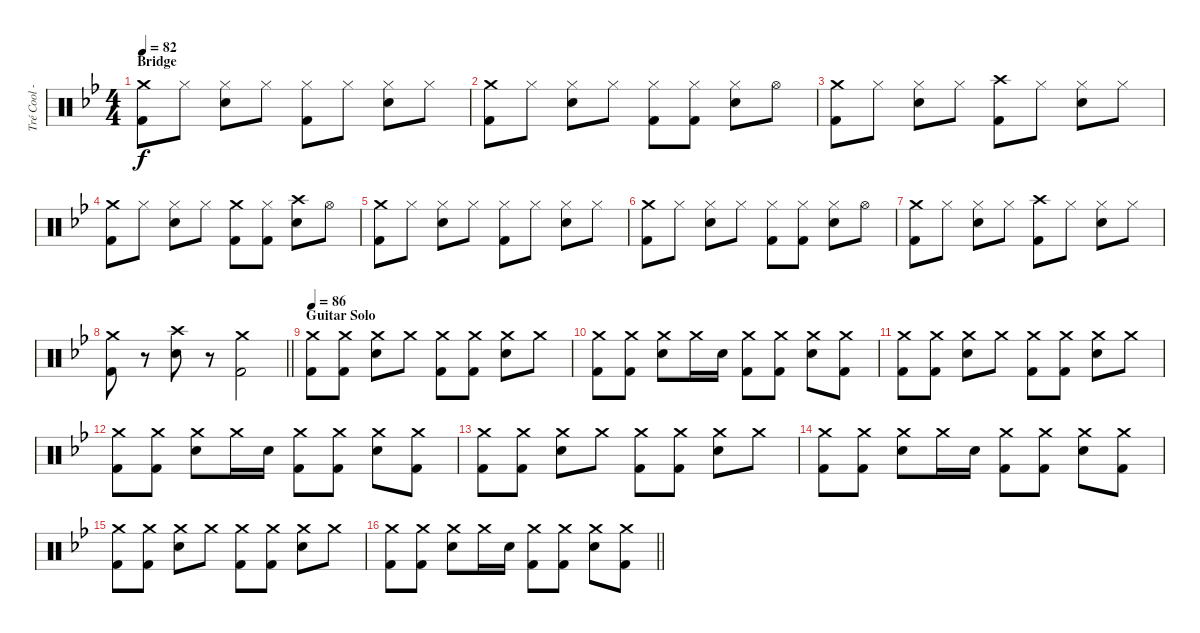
\track ("Tré Cool - Drums" "Tré Cool -") {instrument percussion}
\staff {score}
\articulation defaults
\ts (4 4)
\section ("" "Bridge")
\tempo 82
\clef neutral
\ks gminor
("Crash medium (hit)" "Kick (hit) 2").8{dy f} "Hi-Hat (closed)".8 ("Hi-Hat (closed)" "Electric Snare (hit)").8 "Hi-Hat (closed)".8 ("Hi-Hat (closed)" "Kick (hit) 2").8 "Hi-Hat (closed)".8 ("Hi-Hat (closed)" "Electric Snare (hit)").8 "Hi-Hat (closed)".8 |
("Crash medium (hit)" "Kick (hit) 2").8 "Hi-Hat (closed)".8 ("Hi-Hat (closed)" "Electric Snare (hit)").8 "Hi-Hat (closed)".8 ("Hi-Hat (closed)" "Kick (hit) 2").8 ("Hi-Hat (closed)" "Kick (hit) 2").8 ("Hi-Hat (closed)" "Electric Snare (hit)").8 "Hi-Hat (open)".8 |
("Crash medium (hit)" "Kick (hit) 2").8 "Hi-Hat (closed)".8 ("Hi-Hat (closed)" "Electric Snare (hit)").8 "Hi-Hat (closed)".8 ("Crash high (hit)" "Kick (hit) 2").8 "Hi-Hat (closed)".8 ("Hi-Hat (closed)" "Electric Snare (hit)").8 "Hi-Hat (closed)".8 |
("Crash medium (hit)" "Kick (hit) 2").8 "Hi-Hat (closed)".8 ("Hi-Hat (closed)" "Electric Snare (hit)").8 "Hi-Hat (closed)".8 ("Crash medium (hit)" "Kick (hit) 2").8 ("Hi-Hat (closed)" "Kick (hit) 2").8 ("Crash high (hit)" "Electric Snare (hit)").8 "Hi-Hat (open)".8 |
("Crash medium (hit)" "Kick (hit) 2").8 "Hi-Hat (closed)".8 ("Hi-Hat (closed)" "Electric Snare (hit)").8 "Hi-Hat (closed)".8 ("Hi-Hat (closed)" "Kick (hit) 2").8 "Hi-Hat (closed)".8 ("Hi-Hat (closed)" "Electric Snare (hit)").8 "Hi-Hat (closed)".8 |
("Crash medium (hit)" "Kick (hit) 2").8 "Hi-Hat (closed)".8 ("Hi-Hat (closed)" "Electric Snare (hit)").8 "Hi-Hat (closed)".8 ("Hi-Hat (closed)" "Kick (hit) 2").8 ("Hi-Hat (closed)" "Kick (hit) 2").8 ("Hi-Hat (closed)" "Electric Snare (hit)").8 "Hi-Hat (open)".8 |
("Crash medium (hit)" "Kick (hit) 2").8 "Hi-Hat (closed)".8 ("Hi-Hat (closed)" "Electric Snare (hit)").8 "Hi-Hat (closed)".8 ("Crash high (hit)" "Kick (hit) 2").8 "Hi-Hat (closed)".8 ("Hi-Hat (closed)" "Electric Snare (hit)").8 "Hi-Hat (closed)".8 |
\barLineRight lightlight
("Crash medium (hit)" "Kick (hit) 2").8 r.8 ("Crash high (hit)" "Electric Snare (hit)").8 r.8 ("Crash medium (hit)" "Kick (hit) 2").2 |
\section ("" "Guitar Solo")
\tempo 86
("Crash medium (hit)" "Kick (hit) 2").8 ("Crash medium (hit)" "Kick (hit) 2").8 ("Crash medium (hit)" "Electric Snare (hit)").8 "Crash medium (hit)".8 ("Crash medium (hit)" "Kick (hit) 2").8 ("Crash medium (hit)" "Kick (hit) 2").8 ("Crash medium (hit)" "Electric Snare (hit)").8 "Crash medium (hit)".8 |
("Crash medium (hit)" "Kick (hit) 2").8 ("Crash medium (hit)" "Kick (hit) 2").8 ("Crash medium (hit)" "Electric Snare (hit)").8 "Crash medium (hit)".16 "Electric Snare (hit)".16 ("Crash medium (hit)" "Kick (hit) 2").8 ("Crash medium (hit)" "Kick (hit) 2").8 ("Crash medium (hit)" "Electric Snare (hit)").8 ("Crash medium (hit)" "Kick (hit) 2").8 |
("Crash medium (hit)" "Kick (hit) 2").8 ("Crash medium (hit)" "Kick (hit) 2").8 ("Crash medium (hit)" "Electric Snare (hit)").8 "Crash medium (hit)".8 ("Crash medium (hit)" "Kick (hit) 2").8 ("Crash medium (hit)" "Kick (hit) 2").8 ("Crash medium (hit)" "Electric Snare (hit)").8 "Crash medium (hit)".8 |
("Crash medium (hit)" "Kick (hit) 2").8 ("Crash medium (hit)" "Kick (hit) 2").8 ("Crash medium (hit)" "Electric Snare (hit)").8 "Crash medium (hit)".16 "Electric Snare (hit)".16 ("Crash medium (hit)" "Kick (hit) 2").8 ("Crash medium (hit)" "Kick (hit) 2").8 ("Crash medium (hit)" "Electric Snare (hit)").8 ("Crash medium (hit)" "Kick (hit) 2").8 |
("Crash medium (hit)" "Kick (hit) 2").8 ("Crash medium (hit)" "Kick (hit) 2").8 ("Crash medium (hit)" "Electric Snare (hit)").8 "Crash medium (hit)".8 ("Crash medium (hit)" "Kick (hit) 2").8 ("Crash medium (hit)" "Kick (hit) 2").8 ("Crash medium (hit)" "Electric Snare (hit)").8 "Crash medium (hit)".8 |
("Crash medium (hit)" "Kick (hit) 2").8 ("Crash medium (hit)" "Kick (hit) 2").8 ("Crash medium (hit)" "Electric Snare (hit)").8 "Crash medium (hit)".16 "Electric Snare (hit)".16 ("Crash medium (hit)" "Kick (hit) 2").8 ("Crash medium (hit)" "Kick (hit) 2").8 ("Crash medium (hit)" "Electric Snare (hit)").8 ("Crash medium (hit)" "Kick (hit) 2").8 |
("Crash medium (hit)" "Kick (hit) 2").8 ("Crash medium (hit)" "Kick (hit) 2").8 ("Crash medium (hit)" "Electric Snare (hit)").8 "Crash medium (hit)".8 ("Crash medium (hit)" "Kick (hit) 2").8 ("Crash medium (hit)" "Kick (hit) 2").8 ("Crash medium (hit)" "Electric Snare (hit)").8 "Crash medium (hit)".8 |
\barLineRight lightlight
("Crash medium (hit)" "Kick (hit) 2").8 ("Crash medium (hit)" "Kick (hit) 2").8 ("Crash medium (hit)" "Electric Snare (hit)").8 "Crash medium (hit)".16 "Electric Snare (hit)".16 ("Crash medium (hit)" "Kick (hit) 2").8 ("Crash medium (hit)" "Kick (hit) 2").8 ("Crash medium (hit)" "Electric Snare (hit)").8 ("Crash medium (hit)" "Kick (hit) 2").8
